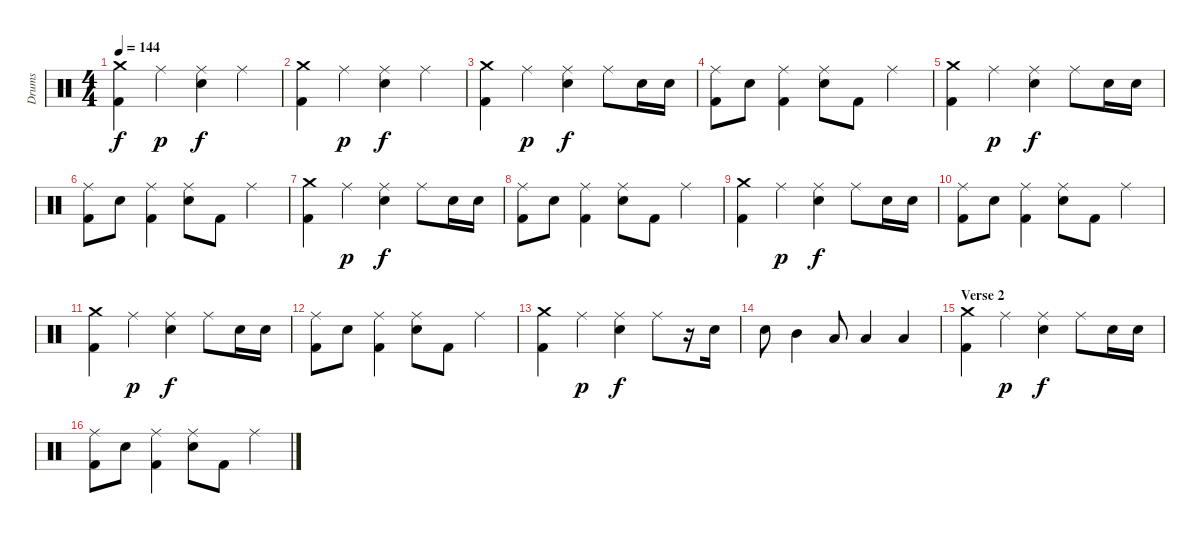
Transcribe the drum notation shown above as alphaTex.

\track ("Drums" "Drums") {instrument percussion}
\staff {score}
\articulation defaults
\ts (4 4)
\tempo 144
\clef neutral
\ks c
("Crash medium (hit)" "Kick (hit) 2").4{dy f} "Ride (middle)".4{dy p} ("Ride (middle)" "Snare (hit) 2").4{dy f} "Ride (middle)".4 |
("Crash medium (hit)" "Kick (hit) 2").4 "Ride (middle)".4{dy p} ("Ride (middle)" "Snare (hit) 2").4{dy f} "Ride (middle)".4 |
("Crash medium (hit)" "Kick (hit) 2").4 "Ride (middle)".4{dy p} ("Ride (middle)" "Snare (hit) 2").4{dy f} "Ride (middle)".8 "Snare (hit) 2".16 "Snare (hit) 2".16 |
("Ride (middle)" "Kick (hit) 2").8 "Snare (hit) 2".8 ("Ride (middle)" "Kick (hit) 2").4 ("Ride (middle)" "Snare (hit) 2").8 "Kick (hit) 2".8 "Ride (middle)".4 |
("Crash medium (hit)" "Kick (hit) 2").4 "Ride (middle)".4{dy p} ("Ride (middle)" "Snare (hit) 2").4{dy f} "Ride (middle)".8 "Snare (hit) 2".16 "Snare (hit) 2".16 |
("Ride (middle)" "Kick (hit) 2").8 "Snare (hit) 2".8 ("Ride (middle)" "Kick (hit) 2").4 ("Ride (middle)" "Snare (hit) 2").8 "Kick (hit) 2".8 "Ride (middle)".4 |
("Crash medium (hit)" "Kick (hit) 2").4 "Ride (middle)".4{dy p} ("Ride (middle)" "Snare (hit) 2").4{dy f} "Ride (middle)".8 "Snare (hit) 2".16 "Snare (hit) 2".16 |
("Ride (middle)" "Kick (hit) 2").8 "Snare (hit) 2".8 ("Ride (middle)" "Kick (hit) 2").4 ("Ride (middle)" "Snare (hit) 2").8 "Kick (hit) 2".8 "Ride (middle)".4 |
("Crash medium (hit)" "Kick (hit) 2").4 "Ride (middle)".4{dy p} ("Ride (middle)" "Snare (hit) 2").4{dy f} "Ride (middle)".8 "Snare (hit) 2".16 "Snare (hit) 2".16 |
("Ride (middle)" "Kick (hit) 2").8 "Snare (hit) 2".8 ("Ride (middle)" "Kick (hit) 2").4 ("Ride (middle)" "Snare (hit) 2").8 "Kick (hit) 2".8 "Ride (middle)".4 |
("Crash medium (hit)" "Kick (hit) 2").4 "Ride (middle)".4{dy p} ("Ride (middle)" "Snare (hit) 2").4{dy f} "Ride (middle)".8 "Snare (hit) 2".16 "Snare (hit) 2".16 |
("Ride (middle)" "Kick (hit) 2").8 "Snare (hit) 2".8 ("Ride (middle)" "Kick (hit) 2").4 ("Ride (middle)" "Snare (hit) 2").8 "Kick (hit) 2".8 "Ride (middle)".4 |
("Crash medium (hit)" "Kick (hit) 2").4 "Ride (middle)".4{dy p} ("Ride (middle)" "Snare (hit) 2").4{dy f} "Ride (middle)".8 r.16 "Snare (hit) 2".16 |
"Snare (hit) 2".8 "Mid Tom (hit)".4 "Low Tom (hit)".8 "Low Tom (hit)".4 "Low Floor Tom (hit)".4 |
\section ("" "Verse 2")
("Crash medium (hit)" "Kick (hit) 2").4 "Ride (middle)".4{dy p} ("Ride (middle)" "Snare (hit) 2").4{dy f} "Ride (middle)".8 "Snare (hit) 2".16 "Snare (hit) 2".16 |
("Ride (middle)" "Kick (hit) 2").8 "Snare (hit) 2".8 ("Ride (middle)" "Kick (hit) 2").4 ("Ride (middle)" "Snare (hit) 2").8 "Kick (hit) 2".8 "Ride (middle)".4
